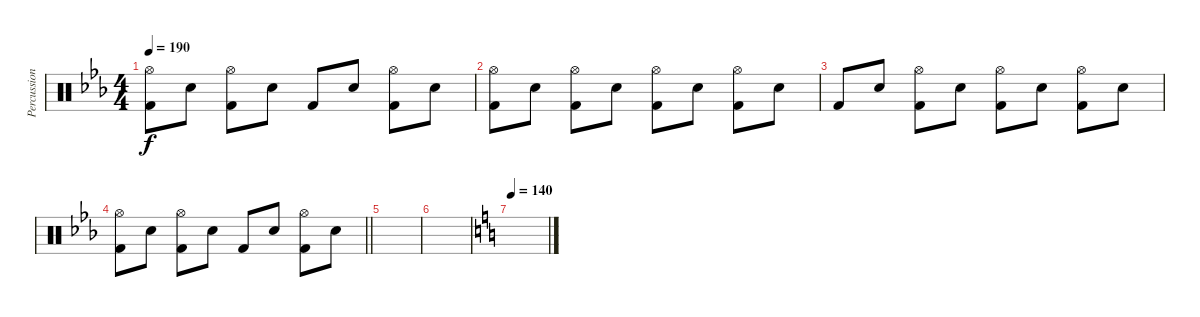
\track ("Percussion" "Percussion") {instrument percussion}
\staff {score}
\articulation defaults
\ts (4 4)
\tempo 190
\clef neutral
\ks cminor
("Hi-Hat (open)" "Kick (hit) 2").8{dy f} "Electric Snare (hit)".8 ("Hi-Hat (open)" "Kick (hit) 2").8 "Electric Snare (hit)".8 "Kick (hit) 2".8 "Electric Snare (hit)".8 ("Hi-Hat (open)" "Kick (hit) 2").8 "Electric Snare (hit)".8 |
("Hi-Hat (open)" "Kick (hit) 2").8 "Electric Snare (hit)".8 ("Hi-Hat (open)" "Kick (hit) 2").8 "Electric Snare (hit)".8 ("Hi-Hat (open)" "Kick (hit) 2").8 "Electric Snare (hit)".8 ("Hi-Hat (open)" "Kick (hit) 2").8 "Electric Snare (hit)".8 |
"Kick (hit) 2".8 "Electric Snare (hit)".8 ("Hi-Hat (open)" "Kick (hit) 2").8 "Electric Snare (hit)".8 ("Hi-Hat (open)" "Kick (hit) 2").8 "Electric Snare (hit)".8 ("Hi-Hat (open)" "Kick (hit) 2").8 "Electric Snare (hit)".8 |
\barLineRight lightlight
("Hi-Hat (open)" "Kick (hit) 2").8 "Electric Snare (hit)".8 ("Hi-Hat (open)" "Kick (hit) 2").8 "Electric Snare (hit)".8 "Kick (hit) 2".8 "Electric Snare (hit)".8 ("Hi-Hat (open)" "Kick (hit) 2").8 "Electric Snare (hit)".8 |
|
|
\tempo 140
\ks c
